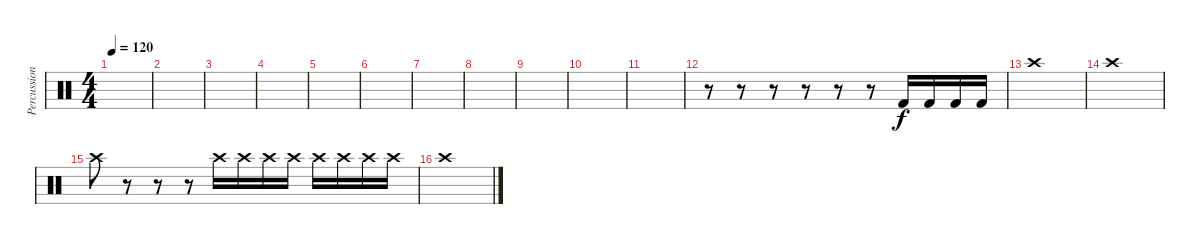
\track ("Percussion" "Percussion") {instrument percussion}
\staff {score}
\articulation defaults
\ts (4 4)
\tempo 120
\clef neutral
\ks c
|
|
|
|
|
|
|
|
|
|
|
r.8 r.8 r.8 r.8 r.8 r.8 "Kick (hit) 2".16 "Kick (hit) 2".16 "Kick (hit) 2".16 "Kick (hit) 2".16 |
"Crash high (hit)".1 |
"Crash high (hit)".1 |
"Crash high (hit)".8 r.8 r.8 r.8 "Crash high (hit)".16 "Crash high (hit)".16 "Crash high (hit)".16 "Crash high (hit)".16 "Crash high (hit)".16 "Crash high (hit)".16 "Crash high (hit)".16 "Crash high (hit)".16 |
"Crash high (hit)".1
